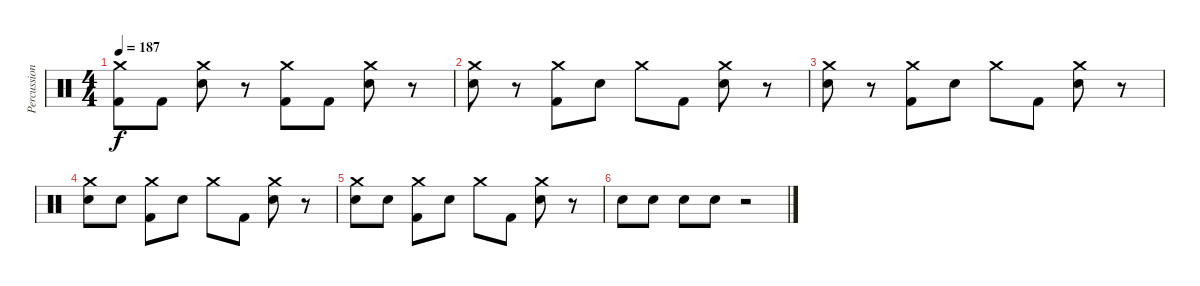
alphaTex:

\track ("Percussion" "Percussion") {instrument percussion}
\staff {score}
\articulation defaults
\ts (4 4)
\tempo 187
\clef neutral
\ks c
("Crash medium (hit)" "Kick (hit) 2").8{dy f} "Kick (hit) 2".8 ("Crash medium (hit)" "Electric Snare (hit)").8 r.8 ("Crash medium (hit)" "Kick (hit) 2").8 "Kick (hit) 2".8 ("Crash medium (hit)" "Electric Snare (hit)").8 r.8 |
("Crash medium (hit)" "Electric Snare (hit)").8 r.8 ("Crash medium (hit)" "Kick (hit) 2").8 "Electric Snare (hit)".8 "Crash medium (hit)".8 "Kick (hit) 2".8 ("Crash medium (hit)" "Electric Snare (hit)").8 r.8 |
("Crash medium (hit)" "Electric Snare (hit)").8 r.8 ("Crash medium (hit)" "Kick (hit) 2").8 "Electric Snare (hit)".8 "Crash medium (hit)".8 "Kick (hit) 2".8 ("Crash medium (hit)" "Electric Snare (hit)").8 r.8 |
("Crash medium (hit)" "Electric Snare (hit)").8 "Electric Snare (hit)".8 ("Crash medium (hit)" "Kick (hit) 2").8 "Electric Snare (hit)".8 "Crash medium (hit)".8 "Kick (hit) 2".8 ("Crash medium (hit)" "Electric Snare (hit)").8 r.8 |
("Crash medium (hit)" "Electric Snare (hit)").8 "Electric Snare (hit)".8 ("Crash medium (hit)" "Kick (hit) 2").8 "Electric Snare (hit)".8 "Crash medium (hit)".8 "Kick (hit) 2".8 ("Crash medium (hit)" "Electric Snare (hit)").8 r.8 |
"Electric Snare (hit)".8 "Electric Snare (hit)".8 "Electric Snare (hit)".8 "Electric Snare (hit)".8 r.2
